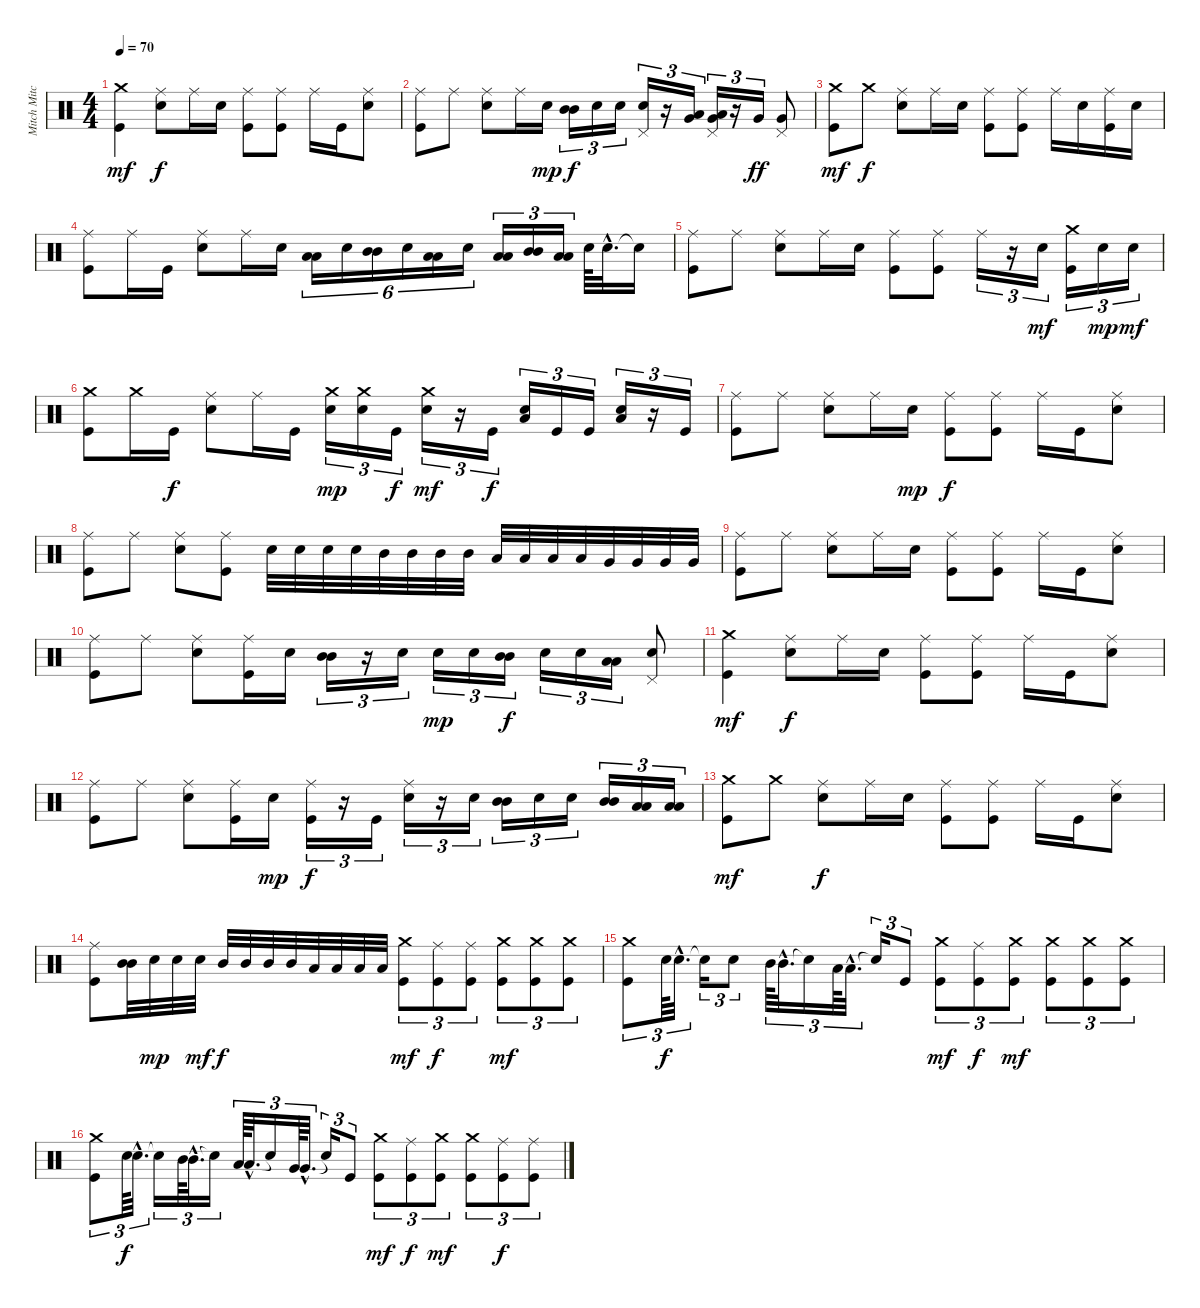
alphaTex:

\track ("Mitch Mitchell" "Mitch Mitc") {instrument percussion}
\staff {score}
\articulation defaults
\ts (4 4)
\tempo 70
\clef neutral
\ks c
("Crash medium (hit)" "Kick (hit)").4{dy mf} ("Ride (middle)" "Electric Snare (hit)").8{dy f} "Ride (middle)".16 "Electric Snare (hit)".16 ("Ride (middle)" "Kick (hit)").8 ("Ride (middle)" "Kick (hit)").8 "Ride (middle)".16 "Kick (hit)".16 ("Ride (middle)" "Electric Snare (hit)").8 |
("Ride (middle)" "Kick (hit)").8 "Ride (middle)".8 ("Ride (middle)" "Electric Snare (hit)").8 "Ride (middle)".16 "Electric Snare (hit)".16{dy mp} ("Mid Tom (hit)" "Mid Tom (hit)").16{tu (3 2) dy f} "Electric Snare (hit)".16{tu (3 2)} "Electric Snare (hit)".16{tu (3 2)} ("Pedal Hi-Hat (hit)" "Electric Snare (hit)").16{tu (3 2)} r.16{tu (3 2)} ("Low Tom (hit)" "Very Low Tom (hit)").16{tu (3 2)} ("Pedal Hi-Hat (hit)" "Low Tom (hit)" "Very Low Tom (hit)").16{tu (3 2)} r.16{tu (3 2)} "Very Low Tom (hit)".16{tu (3 2) dy ff} ("Pedal Hi-Hat (hit)" "Very Low Tom (hit)").8 |
("Crash medium (hit)" "Kick (hit)").8{dy mf} "Crash medium (hit)".8{dy f} ("Ride (middle)" "Electric Snare (hit)").8 "Ride (middle)".16 "Electric Snare (hit)".16 ("Ride (middle)" "Kick (hit)").8 ("Ride (middle)" "Kick (hit)").8 "Ride (middle)".16 "Electric Snare (hit)".16 ("Ride (middle)" "Kick (hit)").16 "Electric Snare (hit)".16 |
("Ride (middle)" "Kick (hit)").8 "Ride (middle)".16 "Kick (hit)".16 ("Ride (middle)" "Electric Snare (hit)").8 "Ride (middle)".16 "Electric Snare (hit)".16 ("Low Tom (hit)" "Low Tom (hit)").16{tu (6 4)} "Electric Snare (hit)".16{tu (6 4)} ("Mid Tom (hit)" "Mid Tom (hit)").16{tu (6 4)} "Electric Snare (hit)".16{tu (6 4)} ("Low Tom (hit)" "Low Tom (hit)").16{tu (6 4)} "Electric Snare (hit)".16{tu (6 4)} ("Low Tom (hit)" "Low Tom (hit)").16{tu (3 2)} ("Mid Tom (hit)" "Mid Tom (hit)").16{tu (3 2)} ("Low Tom (hit)" "Low Tom (hit)").16{tu (3 2)} "Electric Snare (hit)".64 "Electric Snare (hit)"{hac}.32{d} "Snare (hit)"{t}.16 |
("Ride (middle)" "Kick (hit)").8 "Ride (middle)".8 ("Ride (middle)" "Electric Snare (hit)").8 "Ride (middle)".16 "Electric Snare (hit)".16 ("Ride (middle)" "Kick (hit)").8 ("Ride (middle)" "Kick (hit)").8 "Ride (middle)".16{tu (3 2)} r.16{tu (3 2)} "Electric Snare (hit)".16{tu (3 2) dy mf} ("Crash medium (hit)" "Kick (hit)").16{tu (3 2)} "Electric Snare (hit)".16{tu (3 2) dy mp} "Electric Snare (hit)".16{tu (3 2) dy mf} |
("Crash medium (hit)" "Kick (hit)").8 "Crash medium (hit)".16 "Kick (hit)".16{dy f} ("Ride (middle)" "Electric Snare (hit)").8 "Ride (middle)".16 "Kick (hit)".16 ("Crash medium (hit)" "Electric Snare (hit)").16{tu (3 2) dy mp} ("Crash medium (hit)" "Electric Snare (hit)").16{tu (3 2)} "Kick (hit)".16{tu (3 2) dy f} ("Crash medium (hit)" "Electric Snare (hit)").16{tu (3 2) dy mf} r.16{tu (3 2)} "Kick (hit)".16{tu (3 2) dy f} ("Electric Snare (hit)" "Low Tom (hit)").16{tu (3 2)} "Kick (hit)".16{tu (3 2)} "Kick (hit)".16{tu (3 2)} ("Electric Snare (hit)" "Low Tom (hit)").16{tu (3 2)} r.16{tu (3 2)} "Kick (hit)".16{tu (3 2)} |
("Ride (middle)" "Kick (hit)").8 "Ride (middle)".8 ("Ride (middle)" "Electric Snare (hit)").8 "Ride (middle)".16 "Electric Snare (hit)".16{dy mp} ("Ride (middle)" "Kick (hit)").8{dy f} ("Ride (middle)" "Kick (hit)").8 "Ride (middle)".16 "Kick (hit)".16 ("Ride (middle)" "Electric Snare (hit)").8 |
("Ride (middle)" "Kick (hit)").8 "Ride (middle)".8 ("Ride (middle)" "Electric Snare (hit)").8 ("Ride (middle)" "Kick (hit)").8 "Electric Snare (hit)".32 "Electric Snare (hit)".32 "Electric Snare (hit)".32 "Electric Snare (hit)".32 "Mid Tom (hit)".32 "Mid Tom (hit)".32 "Mid Tom (hit)".32 "Mid Tom (hit)".32 "Low Tom (hit)".32 "Low Tom (hit)".32 "Low Tom (hit)".32 "Low Tom (hit)".32 "Very Low Tom (hit)".32 "Very Low Tom (hit)".32 "Very Low Tom (hit)".32 "Very Low Tom (hit)".32 |
("Ride (middle)" "Kick (hit)").8 "Ride (middle)".8 ("Ride (middle)" "Electric Snare (hit)").8 "Ride (middle)".16 "Electric Snare (hit)".16 ("Ride (middle)" "Kick (hit)").8 ("Ride (middle)" "Kick (hit)").8 "Ride (middle)".16 "Kick (hit)".16 ("Ride (middle)" "Electric Snare (hit)").8 |
("Ride (middle)" "Kick (hit)").8 "Ride (middle)".8 ("Ride (middle)" "Electric Snare (hit)").8 ("Ride (middle)" "Kick (hit)").16 "Electric Snare (hit)".16 ("Mid Tom (hit)" "Mid Tom (hit)").16{tu (3 2)} r.16{tu (3 2)} "Electric Snare (hit)".16{tu (3 2)} "Electric Snare (hit)".16{tu (3 2) dy mp} "Electric Snare (hit)".16{tu (3 2)} ("Mid Tom (hit)" "Mid Tom (hit)").16{tu (3 2) dy f} "Electric Snare (hit)".16{tu (3 2)} "Electric Snare (hit)".16{tu (3 2)} ("Low Tom (hit)" "Low Tom (hit)").16{tu (3 2)} ("Pedal Hi-Hat (hit)" "Electric Snare (hit)").8 |
("Crash medium (hit)" "Kick (hit)").4{dy mf} ("Ride (middle)" "Electric Snare (hit)").8{dy f} "Ride (middle)".16 "Electric Snare (hit)".16 ("Ride (middle)" "Kick (hit)").8 ("Ride (middle)" "Kick (hit)").8 "Ride (middle)".16 "Kick (hit)".16 ("Ride (middle)" "Electric Snare (hit)").8 |
("Ride (middle)" "Kick (hit)").8 "Ride (middle)".8 ("Ride (middle)" "Electric Snare (hit)").8 ("Ride (middle)" "Kick (hit)").16 "Electric Snare (hit)".16{dy mp} ("Ride (middle)" "Kick (hit)").16{tu (3 2) dy f} r.16{tu (3 2)} "Kick (hit)".16{tu (3 2)} ("Ride (middle)" "Electric Snare (hit)").16{tu (3 2)} r.16{tu (3 2)} "Electric Snare (hit)".16{tu (3 2)} ("Mid Tom (hit)" "Mid Tom (hit)").16{tu (3 2)} "Electric Snare (hit)".16{tu (3 2)} "Electric Snare (hit)".16{tu (3 2)} ("Mid Tom (hit)" "Mid Tom (hit)").16{tu (3 2)} ("Low Tom (hit)" "Low Tom (hit)").16{tu (3 2)} ("Low Tom (hit)" "Low Tom (hit)").16{tu (3 2)} |
("Crash medium (hit)" "Kick (hit)").8{dy mf} "Crash medium (hit)".8 ("Ride (middle)" "Electric Snare (hit)").8{dy f} "Ride (middle)".16 "Electric Snare (hit)".16 ("Ride (middle)" "Kick (hit)").8 ("Ride (middle)" "Kick (hit)").8 "Ride (middle)".16 "Kick (hit)".16 ("Ride (middle)" "Electric Snare (hit)").8 |
("Ride (middle)" "Kick (hit)").8 ("Mid Tom (hit)" "Mid Tom (hit)").32 "Electric Snare (hit)".32{dy mp} "Electric Snare (hit)".32 "Electric Snare (hit)".32{dy mf} "Mid Tom (hit)".32{dy f} "Mid Tom (hit)".32 "Mid Tom (hit)".32 "Mid Tom (hit)".32 "Low Tom (hit)".32 "Low Tom (hit)".32 "Low Tom (hit)".32 "Low Tom (hit)".32 ("Crash medium (hit)" "Kick (hit)").8{tu (3 2) dy mf} ("Ride (middle)" "Kick (hit)").8{tu (3 2) dy f} ("Ride (middle)" "Kick (hit)").8{tu (3 2)} ("Crash medium (hit)" "Kick (hit)").8{tu (3 2) dy mf} ("Crash medium (hit)" "Kick (hit)").8{tu (3 2)} ("Crash medium (hit)" "Kick (hit)").8{tu (3 2)} |
("Crash medium (hit)" "Kick (hit)").8{tu (3 2)} "Electric Snare (hit)".64{tu (3 2) dy f} "Electric Snare (hit)"{hac}.32{d tu (3 2)} "Snare (hit)"{t}.16{tu (3 2)} "Electric Snare (hit)".8{tu (3 2)} "Mid Tom (hit)".64{tu (3 2)} "Mid Tom (hit)"{hac}.32{d tu (3 2)} "Snare (hit)"{t}.16{tu (3 2)} "Low Tom (hit)".64{tu (3 2)} "Low Tom (hit)"{hac}.32{d tu (3 2)} "Snare (hit)"{t}.16{tu (3 2)} "Kick (hit)".8{tu (3 2)} ("Crash medium (hit)" "Kick (hit)").8{tu (3 2) dy mf} ("Ride (middle)" "Kick (hit)").8{tu (3 2) dy f} ("Crash medium (hit)" "Kick (hit)").8{tu (3 2) dy mf} ("Crash medium (hit)" "Kick (hit)").8{tu (3 2)} ("Crash medium (hit)" "Kick (hit)").8{tu (3 2)} ("Crash medium (hit)" "Kick (hit)").8{tu (3 2)} |
("Crash medium (hit)" "Kick (hit)").8{tu (3 2)} "Electric Snare (hit)".64{tu (3 2) dy f} "Electric Snare (hit)"{hac}.32{d tu (3 2)} "Snare (hit)"{t}.16{tu (3 2)} "Mid Tom (hit)".64{tu (3 2)} "Mid Tom (hit)"{hac}.32{d tu (3 2)} "Snare (hit)"{t}.16{tu (3 2)} "Low Tom (hit)".64{tu (3 2)} "Low Tom (hit)"{hac}.32{d tu (3 2)} "Snare (hit)"{t}.16{tu (3 2)} "Very Low Tom (hit)".64{tu (3 2)} "Very Low Tom (hit)"{hac}.32{d tu (3 2)} "Snare (hit)"{t}.16{tu (3 2)} "Kick (hit)".8{tu (3 2)} ("Crash medium (hit)" "Kick (hit)").8{tu (3 2) dy mf} ("Ride (middle)" "Kick (hit)").8{tu (3 2) dy f} ("Crash medium (hit)" "Kick (hit)").8{tu (3 2) dy mf} ("Crash medium (hit)" "Kick (hit)").8{tu (3 2)} ("Ride (middle)" "Kick (hit)").8{tu (3 2) dy f} ("Ride (middle)" "Kick (hit)").8{tu (3 2)}
